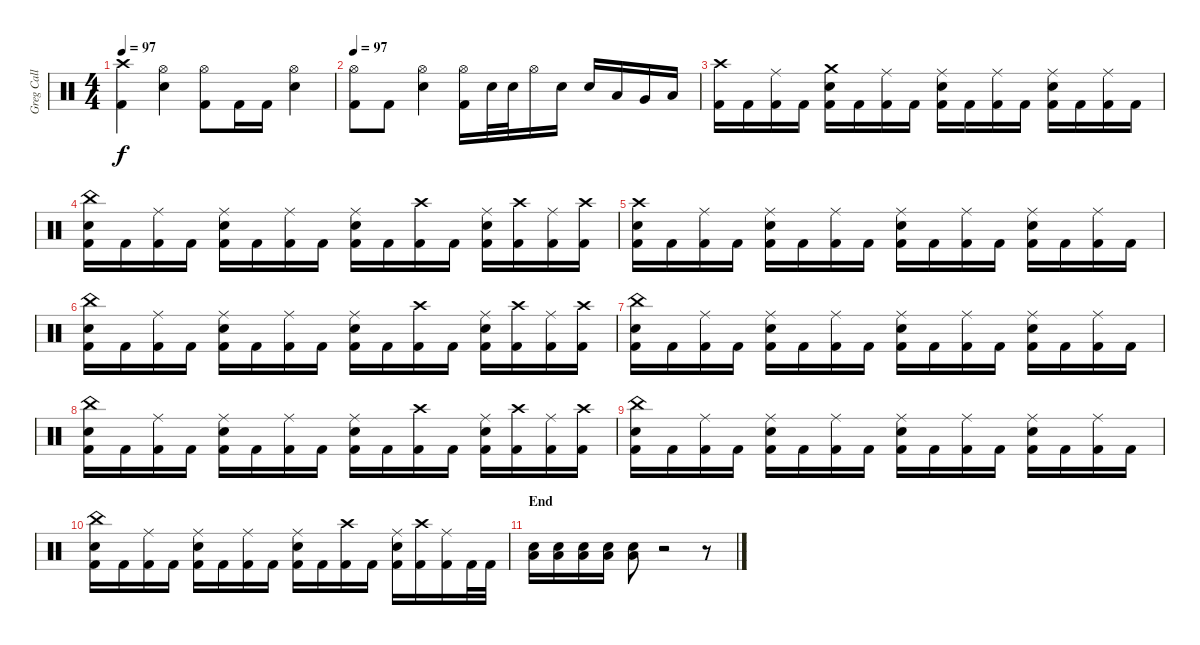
\track ("Greg Call (Drums)" "Greg Call ") {instrument percussion}
\staff {score}
\articulation defaults
\ts (4 4)
\tempo 97
\clef neutral
\ks c
("Crash high (hit)" "Kick (hit) 2").4{dy f} ("Hi-Hat (open)" "Snare (hit) 2").4 ("Hi-Hat (open)" "Kick (hit) 2").8 "Kick (hit) 2".16 "Kick (hit) 2".16 ("Hi-Hat (open)" "Snare (hit) 2").4 |
\tempo 97
("Hi-Hat (open)" "Kick (hit) 2").8 "Kick (hit) 2".8 ("Hi-Hat (open)" "Snare (hit) 2").4 ("Hi-Hat (open)" "Kick (hit) 2").16 "Snare (hit) 2".32 "Snare (hit) 2".32 "Hi-Hat (open)".16 "Snare (hit) 2".16 "Snare (hit) 2".16 "Low Tom (hit)".16 "Very Low Tom (hit)".16 "Low Floor Tom (hit)".16 |
("Crash high (hit)" "Kick (hit) 2").16 "Kick (hit) 2".16 ("Ride (middle)" "Kick (hit) 2").16 "Kick (hit) 2".16 ("Snare (hit) 2" "Crash medium (hit)" "Kick (hit) 2").16 "Kick (hit) 2".16 ("Ride (middle)" "Kick (hit) 2").16 "Kick (hit) 2".16 ("Snare (hit) 2" "Ride (middle)" "Kick (hit) 2").16 "Kick (hit) 2".16 ("Ride (middle)" "Kick (hit) 2").16 "Kick (hit) 2".16 ("Ride (middle)" "Snare (hit) 2" "Kick (hit) 2").16 "Kick (hit) 2".16 ("Ride (middle)" "Kick (hit) 2").16 "Kick (hit) 2".16 |
("Snare (hit) 2" "China (hit)" "Kick (hit) 2").16 "Kick (hit) 2".16 ("Ride (middle)" "Kick (hit) 2").16 "Kick (hit) 2".16 ("Snare (hit) 2" "Ride (middle)" "Kick (hit) 2").16 "Kick (hit) 2".16 ("Ride (middle)" "Kick (hit) 2").16 "Kick (hit) 2".16 ("Snare (hit) 2" "Ride (middle)" "Kick (hit) 2").16 "Kick (hit) 2".16 ("Crash high (hit)" "Kick (hit) 2").16 "Kick (hit) 2".16 ("Ride (middle)" "Snare (hit) 2" "Kick (hit) 2").16 ("Crash high (hit)" "Kick (hit) 2").16 ("Ride (middle)" "Kick (hit) 2").16 ("Crash high (hit)" "Kick (hit) 2").16 |
("Snare (hit) 2" "Crash high (hit)" "Kick (hit) 2").16 "Kick (hit) 2".16 ("Ride (middle)" "Kick (hit) 2").16 "Kick (hit) 2".16 ("Snare (hit) 2" "Ride (middle)" "Kick (hit) 2").16 "Kick (hit) 2".16 ("Ride (middle)" "Kick (hit) 2").16 "Kick (hit) 2".16 ("Snare (hit) 2" "Ride (middle)" "Kick (hit) 2").16 "Kick (hit) 2".16 ("Ride (middle)" "Kick (hit) 2").16 "Kick (hit) 2".16 ("Ride (middle)" "Snare (hit) 2" "Kick (hit) 2").16 "Kick (hit) 2".16 ("Ride (middle)" "Kick (hit) 2").16 "Kick (hit) 2".16 |
("Snare (hit) 2" "China (hit)" "Kick (hit) 2").16 "Kick (hit) 2".16 ("Ride (middle)" "Kick (hit) 2").16 "Kick (hit) 2".16 ("Snare (hit) 2" "Ride (middle)" "Kick (hit) 2").16 "Kick (hit) 2".16 ("Ride (middle)" "Kick (hit) 2").16 "Kick (hit) 2".16 ("Snare (hit) 2" "Ride (middle)" "Kick (hit) 2").16 "Kick (hit) 2".16 ("Crash high (hit)" "Kick (hit) 2").16 "Kick (hit) 2".16 ("Ride (middle)" "Snare (hit) 2" "Kick (hit) 2").16 ("Crash high (hit)" "Kick (hit) 2").16 ("Ride (middle)" "Kick (hit) 2").16 ("Crash high (hit)" "Kick (hit) 2").16 |
("Snare (hit) 2" "China (hit)" "Kick (hit) 2").16 "Kick (hit) 2".16 ("Ride (middle)" "Kick (hit) 2").16 "Kick (hit) 2".16 ("Snare (hit) 2" "Ride (middle)" "Kick (hit) 2").16 "Kick (hit) 2".16 ("Ride (middle)" "Kick (hit) 2").16 "Kick (hit) 2".16 ("Snare (hit) 2" "Ride (middle)" "Kick (hit) 2").16 "Kick (hit) 2".16 ("Ride (middle)" "Kick (hit) 2").16 "Kick (hit) 2".16 ("Ride (middle)" "Snare (hit) 2" "Kick (hit) 2").16 "Kick (hit) 2".16 ("Ride (middle)" "Kick (hit) 2").16 "Kick (hit) 2".16 |
("Snare (hit) 2" "China (hit)" "Kick (hit) 2").16 "Kick (hit) 2".16 ("Ride (middle)" "Kick (hit) 2").16 "Kick (hit) 2".16 ("Snare (hit) 2" "Ride (middle)" "Kick (hit) 2").16 "Kick (hit) 2".16 ("Ride (middle)" "Kick (hit) 2").16 "Kick (hit) 2".16 ("Snare (hit) 2" "Ride (middle)" "Kick (hit) 2").16 "Kick (hit) 2".16 ("Crash high (hit)" "Kick (hit) 2").16 "Kick (hit) 2".16 ("Ride (middle)" "Snare (hit) 2" "Kick (hit) 2").16 ("Crash high (hit)" "Kick (hit) 2").16 ("Ride (middle)" "Kick (hit) 2").16 ("Crash high (hit)" "Kick (hit) 2").16 |
("Snare (hit) 2" "China (hit)" "Kick (hit) 2").16 "Kick (hit) 2".16 ("Ride (middle)" "Kick (hit) 2").16 "Kick (hit) 2".16 ("Snare (hit) 2" "Ride (middle)" "Kick (hit) 2").16 "Kick (hit) 2".16 ("Ride (middle)" "Kick (hit) 2").16 "Kick (hit) 2".16 ("Snare (hit) 2" "Ride (middle)" "Kick (hit) 2").16 "Kick (hit) 2".16 ("Ride (middle)" "Kick (hit) 2").16 "Kick (hit) 2".16 ("Ride (middle)" "Snare (hit) 2" "Kick (hit) 2").16 "Kick (hit) 2".16 ("Ride (middle)" "Kick (hit) 2").16 "Kick (hit) 2".16 |
("Snare (hit) 2" "China (hit)" "Kick (hit) 2").16 "Kick (hit) 2".16 ("Ride (middle)" "Kick (hit) 2").16 "Kick (hit) 2".16 ("Snare (hit) 2" "Ride (middle)" "Kick (hit) 2").16 "Kick (hit) 2".16 ("Ride (middle)" "Kick (hit) 2").16 "Kick (hit) 2".16 ("Snare (hit) 2" "Ride (middle)" "Kick (hit) 2").16 "Kick (hit) 2".16 ("Crash high (hit)" "Kick (hit) 2").16 "Kick (hit) 2".16 ("Ride (middle)" "Snare (hit) 2" "Kick (hit) 2").16 ("Crash high (hit)" "Kick (hit) 2").16 ("Ride (middle)" "Kick (hit) 2").16 "Kick (hit) 2".32 "Kick (hit) 2".32 |
\section ("" "End")
("Low Floor Tom (hit)" "Snare (hit) 2").16 ("Low Floor Tom (hit)" "Snare (hit) 2").16 ("Low Floor Tom (hit)" "Snare (hit) 2").16 ("Low Floor Tom (hit)" "Snare (hit) 2").16 ("Low Floor Tom (hit)" "Snare (hit) 2").8 r.2 r.8
